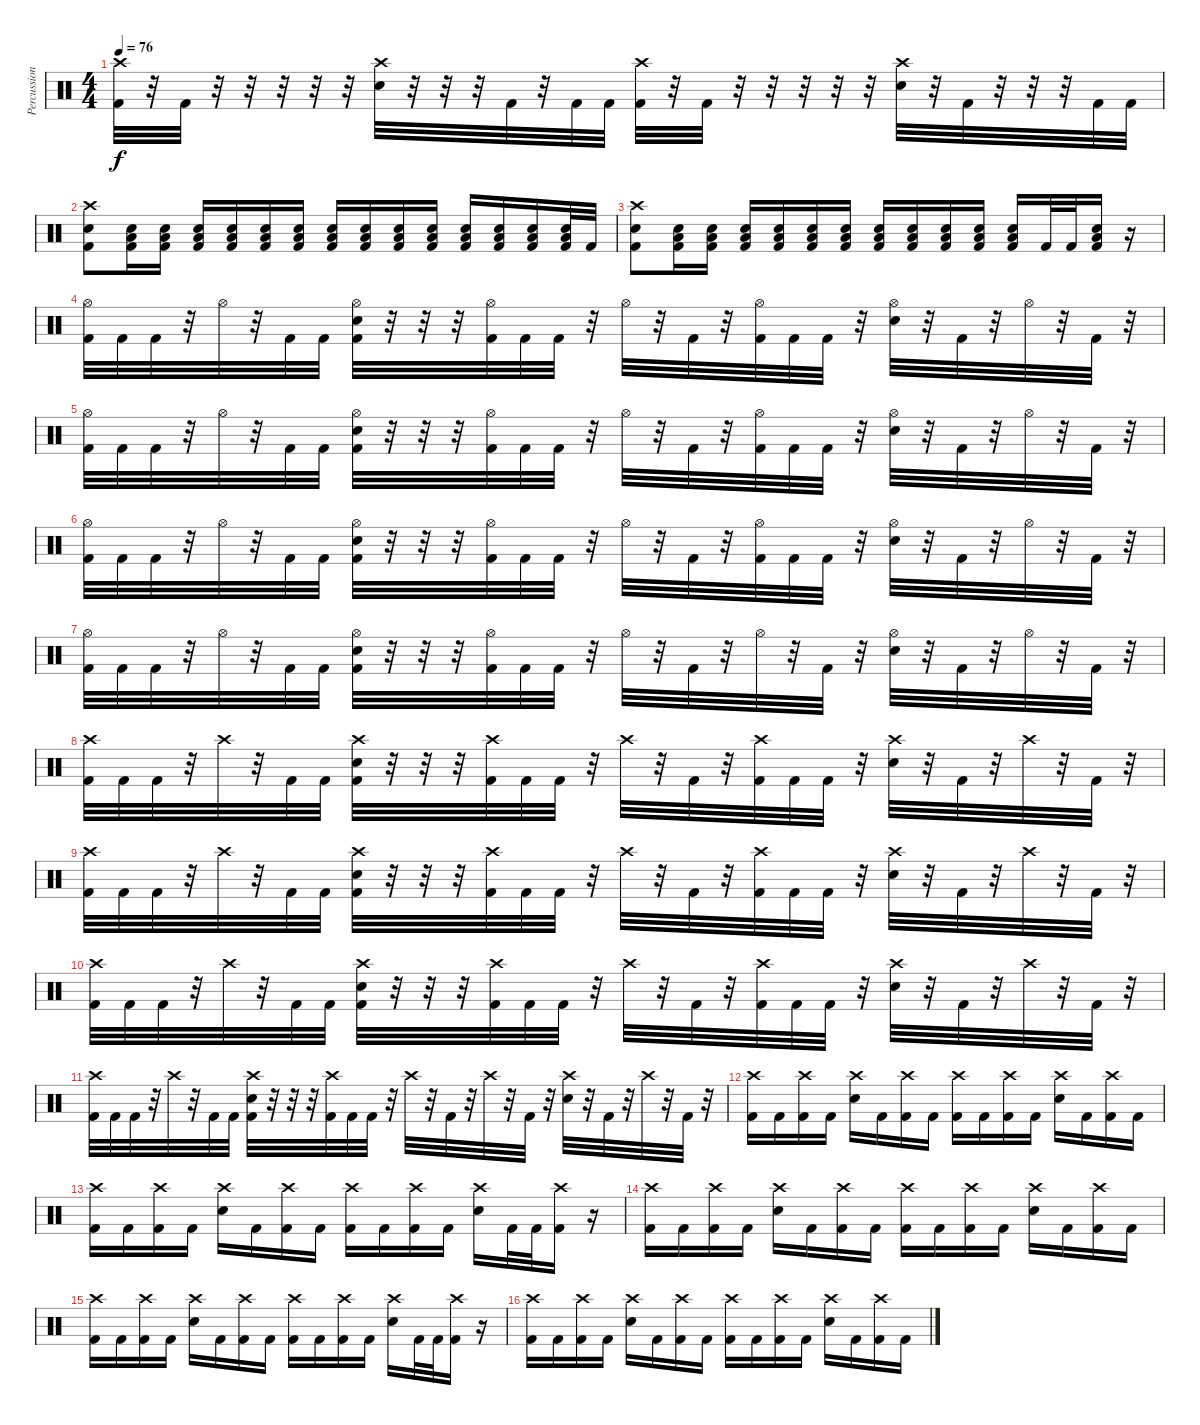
\track ("Percussion" "Percussion") {instrument percussion}
\staff {score}
\articulation defaults
\ts (4 4)
\tempo 76
\clef neutral
\ks c
("Crash high (hit)" "Kick (hit) 2").32{dy f} r.32 "Kick (hit) 2".32 r.32 r.32 r.32 r.32 r.32 ("Crash high (hit)" "Electric Snare (hit)").32 r.32 r.32 r.32 "Kick (hit) 2".32 r.32 "Kick (hit) 2".32 "Kick (hit) 2".32 ("Crash high (hit)" "Kick (hit) 2").32 r.32 "Kick (hit) 2".32 r.32 r.32 r.32 r.32 r.32 ("Crash high (hit)" "Electric Snare (hit)").32 r.32 "Kick (hit) 2".32 r.32 r.32 r.32 "Kick (hit) 2".32 "Kick (hit) 2".32 |
("Crash high (hit)" "Electric Snare (hit)" "Kick (hit) 2").8 ("Electric Snare (hit)" "Low Floor Tom (hit)" "Kick (hit) 2").16{volume 8} ("Electric Snare (hit)" "Low Floor Tom (hit)" "Kick (hit) 2").16 ("Electric Snare (hit)" "Low Floor Tom (hit)" "Kick (hit) 2").16{volume 16} ("Electric Snare (hit)" "Low Floor Tom (hit)" "Kick (hit) 2").16 ("Electric Snare (hit)" "Low Floor Tom (hit)" "Kick (hit) 2").16 ("Electric Snare (hit)" "Low Floor Tom (hit)" "Kick (hit) 2").16 ("Electric Snare (hit)" "Low Floor Tom (hit)" "Kick (hit) 2").16 ("Electric Snare (hit)" "Low Floor Tom (hit)" "Kick (hit) 2").16 ("Electric Snare (hit)" "Low Floor Tom (hit)" "Kick (hit) 2").16 ("Electric Snare (hit)" "Low Floor Tom (hit)" "Kick (hit) 2").16 ("Electric Snare (hit)" "Low Floor Tom (hit)" "Kick (hit) 2").16 ("Electric Snare (hit)" "Low Floor Tom (hit)" "Kick (hit) 2").16 ("Electric Snare (hit)" "Low Floor Tom (hit)" "Kick (hit) 2").16 ("Electric Snare (hit)" "Low Floor Tom (hit)" "Kick (hit) 2").32 "Kick (hit) 2".32 |
("Crash high (hit)" "Electric Snare (hit)" "Kick (hit) 2").8 ("Electric Snare (hit)" "Low Floor Tom (hit)" "Kick (hit) 2").16{volume 8} ("Electric Snare (hit)" "Low Floor Tom (hit)" "Kick (hit) 2").16 ("Electric Snare (hit)" "Low Floor Tom (hit)" "Kick (hit) 2").16{volume 16} ("Electric Snare (hit)" "Low Floor Tom (hit)" "Kick (hit) 2").16 ("Electric Snare (hit)" "Low Floor Tom (hit)" "Kick (hit) 2").16 ("Electric Snare (hit)" "Low Floor Tom (hit)" "Kick (hit) 2").16 ("Electric Snare (hit)" "Low Floor Tom (hit)" "Kick (hit) 2").16 ("Electric Snare (hit)" "Low Floor Tom (hit)" "Kick (hit) 2").16 ("Electric Snare (hit)" "Low Floor Tom (hit)" "Kick (hit) 2").16 ("Electric Snare (hit)" "Low Floor Tom (hit)" "Kick (hit) 2").16 ("Electric Snare (hit)" "Low Floor Tom (hit)" "Kick (hit) 2").16 "Kick (hit) 2".32 "Kick (hit) 2".32 ("Electric Snare (hit)" "Low Floor Tom (hit)" "Kick (hit) 2").16 r.16 |
("Hi-Hat (open)" "Kick (hit) 2").32 "Kick (hit) 2".32 "Kick (hit) 2".32 r.32 "Hi-Hat (open)".32 r.32 "Kick (hit) 2".32 "Kick (hit) 2".32 ("Hi-Hat (open)" "Electric Snare (hit)" "Kick (hit) 2").32 r.32 r.32 r.32 ("Hi-Hat (open)" "Kick (hit) 2").32 "Kick (hit) 2".32 "Kick (hit) 2".32 r.32 "Hi-Hat (open)".32 r.32 "Kick (hit) 2".32 r.32 ("Hi-Hat (open)" "Kick (hit) 2").32 "Kick (hit) 2".32 "Kick (hit) 2".32 r.32 ("Hi-Hat (open)" "Electric Snare (hit)").32 r.32 "Kick (hit) 2".32 r.32 "Hi-Hat (open)".32 r.32 "Kick (hit) 2".32 r.32 |
("Hi-Hat (open)" "Kick (hit) 2").32 "Kick (hit) 2".32 "Kick (hit) 2".32 r.32 "Hi-Hat (open)".32 r.32 "Kick (hit) 2".32 "Kick (hit) 2".32 ("Hi-Hat (open)" "Electric Snare (hit)" "Kick (hit) 2").32 r.32 r.32 r.32 ("Hi-Hat (open)" "Kick (hit) 2").32 "Kick (hit) 2".32 "Kick (hit) 2".32 r.32 "Hi-Hat (open)".32 r.32 "Kick (hit) 2".32 r.32 ("Hi-Hat (open)" "Kick (hit) 2").32 "Kick (hit) 2".32 "Kick (hit) 2".32 r.32 ("Hi-Hat (open)" "Electric Snare (hit)").32 r.32 "Kick (hit) 2".32 r.32 "Hi-Hat (open)".32 r.32 "Kick (hit) 2".32 r.32 |
("Hi-Hat (open)" "Kick (hit) 2").32 "Kick (hit) 2".32 "Kick (hit) 2".32 r.32 "Hi-Hat (open)".32 r.32 "Kick (hit) 2".32 "Kick (hit) 2".32 ("Hi-Hat (open)" "Electric Snare (hit)" "Kick (hit) 2").32 r.32 r.32 r.32 ("Hi-Hat (open)" "Kick (hit) 2").32 "Kick (hit) 2".32 "Kick (hit) 2".32 r.32 "Hi-Hat (open)".32 r.32 "Kick (hit) 2".32 r.32 ("Hi-Hat (open)" "Kick (hit) 2").32 "Kick (hit) 2".32 "Kick (hit) 2".32 r.32 ("Hi-Hat (open)" "Electric Snare (hit)").32 r.32 "Kick (hit) 2".32 r.32 "Hi-Hat (open)".32 r.32 "Kick (hit) 2".32 r.32 |
("Hi-Hat (open)" "Kick (hit) 2").32 "Kick (hit) 2".32 "Kick (hit) 2".32 r.32 "Hi-Hat (open)".32 r.32 "Kick (hit) 2".32 "Kick (hit) 2".32 ("Hi-Hat (open)" "Electric Snare (hit)" "Kick (hit) 2").32 r.32 r.32 r.32 ("Hi-Hat (open)" "Kick (hit) 2").32 "Kick (hit) 2".32 "Kick (hit) 2".32 r.32 "Hi-Hat (open)".32 r.32 "Kick (hit) 2".32 r.32 "Hi-Hat (open)".32 r.32 "Kick (hit) 2".32 r.32 ("Hi-Hat (open)" "Electric Snare (hit)").32 r.32 "Kick (hit) 2".32 r.32 "Hi-Hat (open)".32 r.32 "Kick (hit) 2".32 r.32 |
("Crash high (hit)" "Kick (hit) 2").32 "Kick (hit) 2".32 "Kick (hit) 2".32 r.32 "Crash high (hit)".32 r.32 "Kick (hit) 2".32 "Kick (hit) 2".32 ("Crash high (hit)" "Electric Snare (hit)" "Kick (hit) 2").32 r.32 r.32 r.32 ("Crash high (hit)" "Kick (hit) 2").32 "Kick (hit) 2".32 "Kick (hit) 2".32 r.32 "Crash high (hit)".32 r.32 "Kick (hit) 2".32 r.32 ("Crash high (hit)" "Kick (hit) 2").32 "Kick (hit) 2".32 "Kick (hit) 2".32 r.32 ("Crash high (hit)" "Electric Snare (hit)").32 r.32 "Kick (hit) 2".32 r.32 "Crash high (hit)".32 r.32 "Kick (hit) 2".32 r.32 |
("Crash high (hit)" "Kick (hit) 2").32 "Kick (hit) 2".32 "Kick (hit) 2".32 r.32 "Crash high (hit)".32 r.32 "Kick (hit) 2".32 "Kick (hit) 2".32 ("Crash high (hit)" "Electric Snare (hit)" "Kick (hit) 2").32 r.32 r.32 r.32 ("Crash high (hit)" "Kick (hit) 2").32 "Kick (hit) 2".32 "Kick (hit) 2".32 r.32 "Crash high (hit)".32 r.32 "Kick (hit) 2".32 r.32 ("Crash high (hit)" "Kick (hit) 2").32 "Kick (hit) 2".32 "Kick (hit) 2".32 r.32 ("Crash high (hit)" "Electric Snare (hit)").32 r.32 "Kick (hit) 2".32 r.32 "Crash high (hit)".32 r.32 "Kick (hit) 2".32 r.32 |
("Crash high (hit)" "Kick (hit) 2").32 "Kick (hit) 2".32 "Kick (hit) 2".32 r.32 "Crash high (hit)".32 r.32 "Kick (hit) 2".32 "Kick (hit) 2".32 ("Crash high (hit)" "Electric Snare (hit)" "Kick (hit) 2").32 r.32 r.32 r.32 ("Crash high (hit)" "Kick (hit) 2").32 "Kick (hit) 2".32 "Kick (hit) 2".32 r.32 "Crash high (hit)".32 r.32 "Kick (hit) 2".32 r.32 ("Crash high (hit)" "Kick (hit) 2").32 "Kick (hit) 2".32 "Kick (hit) 2".32 r.32 ("Crash high (hit)" "Electric Snare (hit)").32 r.32 "Kick (hit) 2".32 r.32 "Crash high (hit)".32 r.32 "Kick (hit) 2".32 r.32 |
("Crash high (hit)" "Kick (hit) 2").32 "Kick (hit) 2".32 "Kick (hit) 2".32 r.32 "Crash high (hit)".32 r.32 "Kick (hit) 2".32 "Kick (hit) 2".32 ("Crash high (hit)" "Electric Snare (hit)" "Kick (hit) 2").32 r.32 r.32 r.32 ("Crash high (hit)" "Kick (hit) 2").32 "Kick (hit) 2".32 "Kick (hit) 2".32 r.32 "Crash high (hit)".32 r.32 "Kick (hit) 2".32 r.32 "Crash high (hit)".32 r.32 "Kick (hit) 2".32 r.32 ("Crash high (hit)" "Electric Snare (hit)").32 r.32 "Kick (hit) 2".32 r.32 "Crash high (hit)".32 r.32 "Kick (hit) 2".32 r.32 |
("Crash high (hit)" "Kick (hit) 2").16 "Kick (hit) 2".16 ("Crash high (hit)" "Kick (hit) 2").16 "Kick (hit) 2".16 ("Crash high (hit)" "Electric Snare (hit)").16 "Kick (hit) 2".16 ("Crash high (hit)" "Kick (hit) 2").16 "Kick (hit) 2".16 ("Crash high (hit)" "Kick (hit) 2").16 "Kick (hit) 2".16 ("Crash high (hit)" "Kick (hit) 2").16 "Kick (hit) 2".16 ("Crash high (hit)" "Electric Snare (hit)").16 "Kick (hit) 2".16 ("Crash high (hit)" "Kick (hit) 2").16 "Kick (hit) 2".16 |
("Crash high (hit)" "Kick (hit) 2").16 "Kick (hit) 2".16 ("Crash high (hit)" "Kick (hit) 2").16 "Kick (hit) 2".16 ("Crash high (hit)" "Electric Snare (hit)").16 "Kick (hit) 2".16 ("Crash high (hit)" "Kick (hit) 2").16 "Kick (hit) 2".16 ("Crash high (hit)" "Kick (hit) 2").16 "Kick (hit) 2".16 ("Crash high (hit)" "Kick (hit) 2").16 "Kick (hit) 2".16 ("Crash high (hit)" "Electric Snare (hit)").16 "Kick (hit) 2".32 "Kick (hit) 2".32 ("Crash high (hit)" "Kick (hit) 2").16 r.16 |
("Crash high (hit)" "Kick (hit) 2").16 "Kick (hit) 2".16 ("Crash high (hit)" "Kick (hit) 2").16 "Kick (hit) 2".16 ("Crash high (hit)" "Electric Snare (hit)").16 "Kick (hit) 2".16 ("Crash high (hit)" "Kick (hit) 2").16 "Kick (hit) 2".16 ("Crash high (hit)" "Kick (hit) 2").16 "Kick (hit) 2".16 ("Crash high (hit)" "Kick (hit) 2").16 "Kick (hit) 2".16 ("Crash high (hit)" "Electric Snare (hit)").16 "Kick (hit) 2".16 ("Crash high (hit)" "Kick (hit) 2").16 "Kick (hit) 2".16 |
("Crash high (hit)" "Kick (hit) 2").16 "Kick (hit) 2".16 ("Crash high (hit)" "Kick (hit) 2").16 "Kick (hit) 2".16 ("Crash high (hit)" "Electric Snare (hit)").16 "Kick (hit) 2".16 ("Crash high (hit)" "Kick (hit) 2").16 "Kick (hit) 2".16 ("Crash high (hit)" "Kick (hit) 2").16 "Kick (hit) 2".16 ("Crash high (hit)" "Kick (hit) 2").16 "Kick (hit) 2".16 ("Crash high (hit)" "Electric Snare (hit)").16 "Kick (hit) 2".32 "Kick (hit) 2".32 ("Crash high (hit)" "Kick (hit) 2").16 r.16 |
("Crash high (hit)" "Kick (hit) 2").16 "Kick (hit) 2".16 ("Crash high (hit)" "Kick (hit) 2").16 "Kick (hit) 2".16 ("Crash high (hit)" "Electric Snare (hit)").16 "Kick (hit) 2".16 ("Crash high (hit)" "Kick (hit) 2").16 "Kick (hit) 2".16 ("Crash high (hit)" "Kick (hit) 2").16 "Kick (hit) 2".16 ("Crash high (hit)" "Kick (hit) 2").16 "Kick (hit) 2".16 ("Crash high (hit)" "Electric Snare (hit)").16 "Kick (hit) 2".16 ("Crash high (hit)" "Kick (hit) 2").16 "Kick (hit) 2".16
